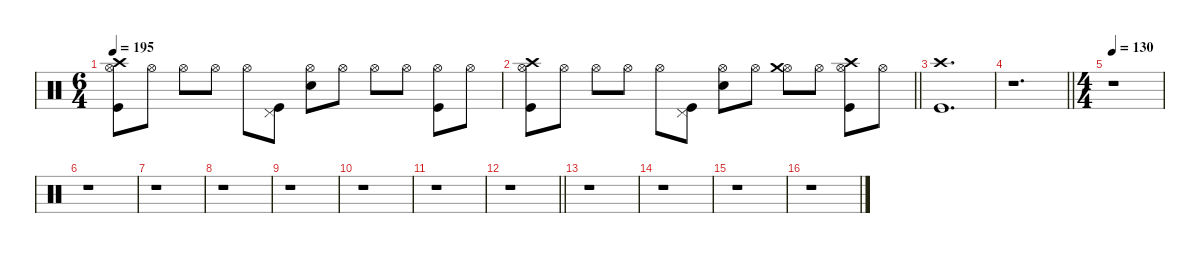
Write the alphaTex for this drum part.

\defaultSystemsLayout 4
\hideDynamics
\bracketExtendMode nobrackets
\singleTrackTrackNamePolicy hidden
\multiTrackTrackNamePolicy hidden
\firstSystemTrackNameMode fullname
\firstSystemTrackNameOrientation horizontal
\otherSystemsTrackNameOrientation horizontal
\track ("Percussion" "drm.") {defaultSystemsLayout 4 instrument percussion}
\staff {score}
\articulation defaults
\ts (6 4)
\tempo 195
\clef neutral
\ks c
("Crash high (hit)" "Hi-Hat (open)" "Kick (hit)").8{dy f beam Down} "Hi-Hat (open)".8{beam Down} "Hi-Hat (open)".8{beam Down} "Hi-Hat (open)".8{beam Down} "Hi-Hat (open)".8{beam Down} ("Pedal Hi-Hat (hit)" "Kick (hit)").8{beam Down} ("Hi-Hat (open)" "Snare (hit) 2").8{beam Down} "Hi-Hat (open)".8{beam Down} "Hi-Hat (open)".8{beam Down} "Hi-Hat (open)".8{beam Down} ("Hi-Hat (open)" "Kick (hit)").8{beam Down} "Hi-Hat (open)".8{beam Down} |
\barLineRight lightlight
("Crash high (hit)" "Hi-Hat (open)" "Kick (hit)").8{beam Down} "Hi-Hat (open)".8{beam Down} "Hi-Hat (open)".8{beam Down} "Hi-Hat (open)".8{beam Down} "Hi-Hat (open)".8{beam Down} ("Pedal Hi-Hat (hit)" "Kick (hit)").8{beam Down} ("Hi-Hat (open)" "Snare (hit) 2").8{beam Down} "Hi-Hat (open)".8{beam Down} ("Hi-Hat (open)" "Crash medium (hit)").8{beam Down} "Hi-Hat (open)".8{beam Down} ("Hi-Hat (open)" "Crash high (hit)" "Kick (hit)").8{beam Down} "Hi-Hat (open)".8{beam Down} |
("Crash high (hit)" "Kick (hit)").1{d beam Down} |
\barLineRight lightlight
r.1{d beam Down} |
\ts (4 4)
\beaming (8 2 2 2 2)
\tempo 130
r.1{beam Down} |
r.1{beam Down} |
r.1{beam Down} |
r.1{beam Down} |
r.1{beam Down} |
r.1{beam Down} |
r.1{beam Down} |
\barLineRight lightlight
r.1{beam Down} |
r.1{beam Down} |
r.1{beam Down} |
r.1{beam Down} |
r.1{beam Down}
